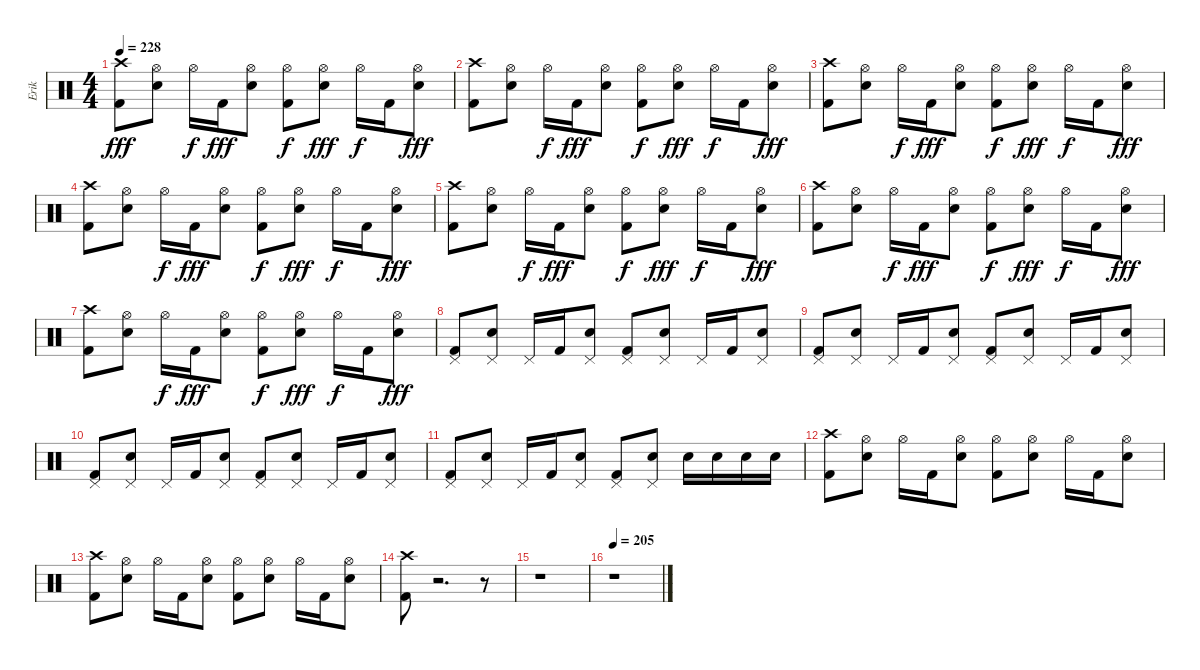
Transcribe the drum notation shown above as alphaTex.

\track ("Erik" "Erik") {instrument percussion}
\staff {score}
\articulation defaults
\ts (4 4)
\tempo 228
\clef neutral
\ks c
("Crash high (hit)" "Kick (hit) 2").8{dy fff} ("Hi-Hat (open)" "Electric Snare (hit)").8 "Hi-Hat (open)".16{dy f} "Kick (hit) 2".16{dy fff} ("Hi-Hat (open)" "Electric Snare (hit)").8 ("Hi-Hat (open)" "Kick (hit) 2").8{dy f} ("Hi-Hat (open)" "Electric Snare (hit)").8{dy fff} "Hi-Hat (open)".16{dy f} "Kick (hit) 2".16 ("Hi-Hat (open)" "Electric Snare (hit)").8{dy fff} |
("Crash high (hit)" "Kick (hit) 2").8 ("Hi-Hat (open)" "Electric Snare (hit)").8 "Hi-Hat (open)".16{dy f} "Kick (hit) 2".16{dy fff} ("Hi-Hat (open)" "Electric Snare (hit)").8 ("Hi-Hat (open)" "Kick (hit) 2").8{dy f} ("Hi-Hat (open)" "Electric Snare (hit)").8{dy fff} "Hi-Hat (open)".16{dy f} "Kick (hit) 2".16 ("Hi-Hat (open)" "Electric Snare (hit)").8{dy fff} |
("Crash high (hit)" "Kick (hit) 2").8 ("Hi-Hat (open)" "Electric Snare (hit)").8 "Hi-Hat (open)".16{dy f} "Kick (hit) 2".16{dy fff} ("Hi-Hat (open)" "Electric Snare (hit)").8 ("Hi-Hat (open)" "Kick (hit) 2").8{dy f} ("Hi-Hat (open)" "Electric Snare (hit)").8{dy fff} "Hi-Hat (open)".16{dy f} "Kick (hit) 2".16 ("Hi-Hat (open)" "Electric Snare (hit)").8{dy fff} |
("Crash high (hit)" "Kick (hit) 2").8 ("Hi-Hat (open)" "Electric Snare (hit)").8 "Hi-Hat (open)".16{dy f} "Kick (hit) 2".16{dy fff} ("Hi-Hat (open)" "Electric Snare (hit)").8 ("Hi-Hat (open)" "Kick (hit) 2").8{dy f} ("Hi-Hat (open)" "Electric Snare (hit)").8{dy fff} "Hi-Hat (open)".16{dy f} "Kick (hit) 2".16 ("Hi-Hat (open)" "Electric Snare (hit)").8{dy fff} |
("Crash high (hit)" "Kick (hit) 2").8 ("Hi-Hat (open)" "Electric Snare (hit)").8 "Hi-Hat (open)".16{dy f} "Kick (hit) 2".16{dy fff} ("Hi-Hat (open)" "Electric Snare (hit)").8 ("Hi-Hat (open)" "Kick (hit) 2").8{dy f} ("Hi-Hat (open)" "Electric Snare (hit)").8{dy fff} "Hi-Hat (open)".16{dy f} "Kick (hit) 2".16 ("Hi-Hat (open)" "Electric Snare (hit)").8{dy fff} |
("Crash high (hit)" "Kick (hit) 2").8 ("Hi-Hat (open)" "Electric Snare (hit)").8 "Hi-Hat (open)".16{dy f} "Kick (hit) 2".16{dy fff} ("Hi-Hat (open)" "Electric Snare (hit)").8 ("Hi-Hat (open)" "Kick (hit) 2").8{dy f} ("Hi-Hat (open)" "Electric Snare (hit)").8{dy fff} "Hi-Hat (open)".16{dy f} "Kick (hit) 2".16 ("Hi-Hat (open)" "Electric Snare (hit)").8{dy fff} |
("Crash high (hit)" "Kick (hit) 2").8 ("Hi-Hat (open)" "Electric Snare (hit)").8 "Hi-Hat (open)".16{dy f} "Kick (hit) 2".16{dy fff} ("Hi-Hat (open)" "Electric Snare (hit)").8 ("Hi-Hat (open)" "Kick (hit) 2").8{dy f} ("Hi-Hat (open)" "Electric Snare (hit)").8{dy fff} "Hi-Hat (open)".16{dy f} "Kick (hit) 2".16 ("Hi-Hat (open)" "Electric Snare (hit)").8{dy fff} |
("Pedal Hi-Hat (hit)" "Kick (hit) 2").8 ("Pedal Hi-Hat (hit)" "Electric Snare (hit)").8 "Pedal Hi-Hat (hit)".16 "Kick (hit) 2".16 ("Electric Snare (hit)" "Pedal Hi-Hat (hit)").8 ("Pedal Hi-Hat (hit)" "Kick (hit) 2").8 ("Pedal Hi-Hat (hit)" "Electric Snare (hit)").8 "Pedal Hi-Hat (hit)".16 "Kick (hit) 2".16 ("Electric Snare (hit)" "Pedal Hi-Hat (hit)").8 |
("Pedal Hi-Hat (hit)" "Kick (hit) 2").8 ("Pedal Hi-Hat (hit)" "Electric Snare (hit)").8 "Pedal Hi-Hat (hit)".16 "Kick (hit) 2".16 ("Electric Snare (hit)" "Pedal Hi-Hat (hit)").8 ("Pedal Hi-Hat (hit)" "Kick (hit) 2").8 ("Pedal Hi-Hat (hit)" "Electric Snare (hit)").8 "Pedal Hi-Hat (hit)".16 "Kick (hit) 2".16 ("Electric Snare (hit)" "Pedal Hi-Hat (hit)").8 |
("Pedal Hi-Hat (hit)" "Kick (hit) 2").8 ("Pedal Hi-Hat (hit)" "Electric Snare (hit)").8 "Pedal Hi-Hat (hit)".16 "Kick (hit) 2".16 ("Electric Snare (hit)" "Pedal Hi-Hat (hit)").8 ("Pedal Hi-Hat (hit)" "Kick (hit) 2").8 ("Pedal Hi-Hat (hit)" "Electric Snare (hit)").8 "Pedal Hi-Hat (hit)".16 "Kick (hit) 2".16 ("Electric Snare (hit)" "Pedal Hi-Hat (hit)").8 |
("Pedal Hi-Hat (hit)" "Kick (hit) 2").8 ("Pedal Hi-Hat (hit)" "Electric Snare (hit)").8 "Pedal Hi-Hat (hit)".16 "Kick (hit) 2".16 ("Electric Snare (hit)" "Pedal Hi-Hat (hit)").8 ("Pedal Hi-Hat (hit)" "Kick (hit) 2").8 ("Electric Snare (hit)" "Pedal Hi-Hat (hit)").8 "Electric Snare (hit)".16 "Electric Snare (hit)".16 "Electric Snare (hit)".16 "Electric Snare (hit)".16 |
("Crash high (hit)" "Kick (hit) 2").8 ("Hi-Hat (open)" "Electric Snare (hit)").8 "Hi-Hat (open)".16 "Kick (hit) 2".16 ("Hi-Hat (open)" "Electric Snare (hit)").8 ("Hi-Hat (open)" "Kick (hit) 2").8 ("Hi-Hat (open)" "Electric Snare (hit)").8 "Hi-Hat (open)".16 "Kick (hit) 2".16 ("Hi-Hat (open)" "Electric Snare (hit)").8 |
("Crash high (hit)" "Kick (hit) 2").8 ("Hi-Hat (open)" "Electric Snare (hit)").8 "Hi-Hat (open)".16 "Kick (hit) 2".16 ("Hi-Hat (open)" "Electric Snare (hit)").8 ("Hi-Hat (open)" "Kick (hit) 2").8 ("Hi-Hat (open)" "Electric Snare (hit)").8 "Hi-Hat (open)".16 "Kick (hit) 2".16 ("Hi-Hat (open)" "Electric Snare (hit)").8 |
("Crash high (hit)" "Kick (hit) 2").8 r.2{d} r.8 |
r.1 |
\tempo 205
r.1
